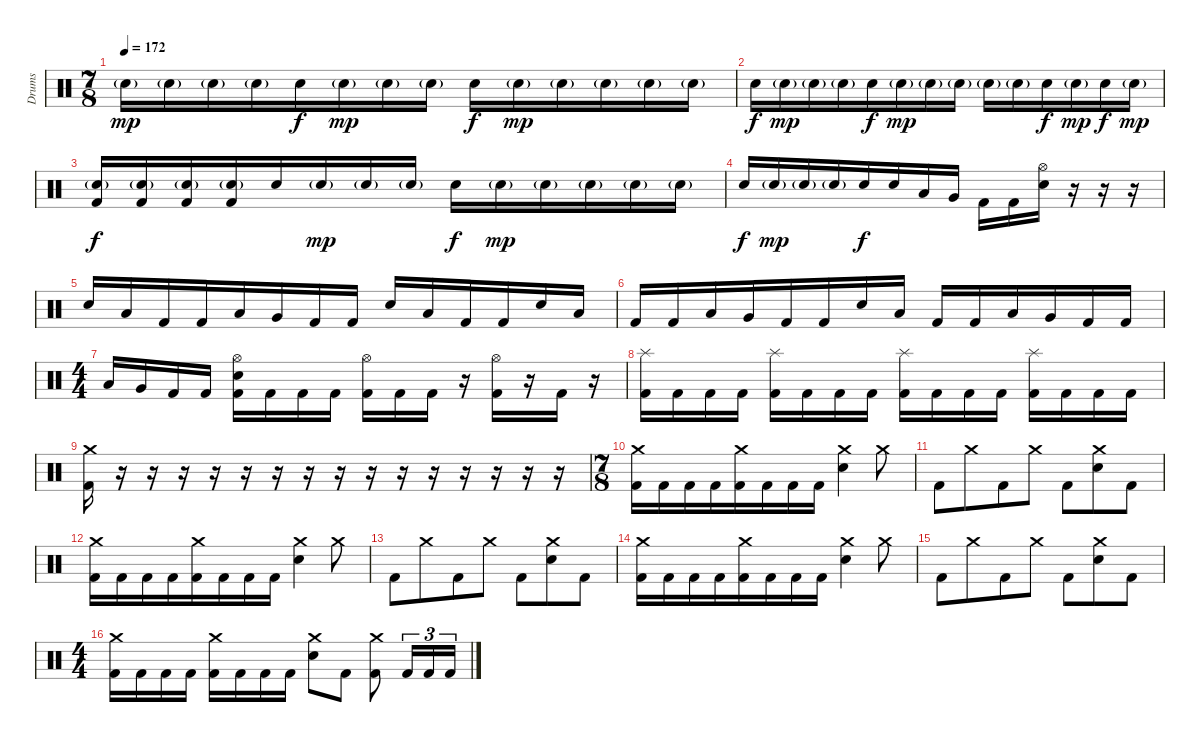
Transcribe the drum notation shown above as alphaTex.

\track ("Drums" "Drums") {instrument percussion}
\staff {score}
\articulation defaults
\ts (7 8)
\tempo 172
\clef neutral
\ks c "Snare (hit) 2"{g}.16{dy mp} "Snare (hit) 2"{g}.16 "Snare (hit) 2"{g}.16 "Snare (hit) 2"{g}.16 "Electric Snare (hit)".16{dy f} "Snare (hit) 2"{g}.16{dy mp} "Snare (hit) 2"{g}.16 "Snare (hit) 2"{g}.16 "Electric Snare (hit)".16{dy f} "Snare (hit) 2"{g}.16{dy mp} "Snare (hit) 2"{g}.16 "Snare (hit) 2"{g}.16 "Snare (hit) 2"{g}.16 "Snare (hit) 2"{g}.16
|
"Electric Snare (hit)".16{dy f} "Snare (hit) 2"{g}.16{dy mp} "Snare (hit) 2"{g}.16 "Snare (hit) 2"{g}.16 "Electric Snare (hit)".16{dy f} "Snare (hit) 2"{g}.16{dy mp} "Snare (hit) 2"{g}.16 "Snare (hit) 2"{g}.16 "Snare (hit) 2"{g}.16 "Snare (hit) 2"{g}.16 "Electric Snare (hit)".16{dy f} "Snare (hit) 2"{g}.16{dy mp} "Electric Snare (hit)".16{dy f} "Snare (hit) 2"{g}.16{dy mp} |
("Snare (hit) 2"{g} "Kick (hit) 2").16{dy f} ("Snare (hit) 2"{g} "Kick (hit) 2").16 ("Snare (hit) 2"{g} "Kick (hit) 2").16 ("Snare (hit) 2"{g} "Kick (hit) 2").16 "Electric Snare (hit)".16 "Snare (hit) 2"{g}.16{dy mp} "Snare (hit) 2"{g}.16 "Snare (hit) 2"{g}.16 "Electric Snare (hit)".16{dy f} "Snare (hit) 2"{g}.16{dy mp} "Snare (hit) 2"{g}.16 "Snare (hit) 2"{g}.16 "Snare (hit) 2"{g}.16 "Snare (hit) 2"{g}.16 |
"Electric Snare (hit)".16{dy f} "Snare (hit) 2"{g}.16{dy mp} "Snare (hit) 2"{g}.16 "Snare (hit) 2"{g}.16 "Electric Snare (hit)".16{dy f} "Electric Snare (hit)".16 "Low Tom (hit)".16 "Very Low Tom (hit)".16 "Kick (hit) 2".16 "Kick (hit) 2".16 ("Hi-Hat (open)" "Electric Snare (hit)").16 r.16 r.16 r.16 |
"Electric Snare (hit)".16 "Low Tom (hit)".16 "Kick (hit) 2".16 "Kick (hit) 2".16 "Low Tom (hit)".16 "Very Low Tom (hit)".16 "Kick (hit) 2".16 "Kick (hit) 2".16 "Electric Snare (hit)".16 "Low Tom (hit)".16 "Kick (hit) 2".16 "Kick (hit) 2".16 "Electric Snare (hit)".16 "Low Tom (hit)".16 |
"Kick (hit) 2".16 "Kick (hit) 2".16 "Low Tom (hit)".16 "Very Low Tom (hit)".16 "Kick (hit) 2".16 "Kick (hit) 2".16 "Electric Snare (hit)".16 "Low Tom (hit)".16 "Kick (hit) 2".16 "Kick (hit) 2".16 "Low Tom (hit)".16 "Very Low Tom (hit)".16 "Kick (hit) 2".16 "Kick (hit) 2".16 |
\ts (4 4)
"Low Tom (hit)".16 "Very Low Tom (hit)".16 "Kick (hit) 2".16 "Kick (hit) 2".16 ("Hi-Hat (open)" "Electric Snare (hit)" "Kick (hit) 2").16 "Kick (hit) 2".16 "Kick (hit) 2".16 "Kick (hit) 2".16 ("Hi-Hat (open)" "Kick (hit) 2").16 "Kick (hit) 2".16 "Kick (hit) 2".16 r.16 ("Hi-Hat (open)" "Kick (hit) 2").16 r.16 "Kick (hit) 2".16 r.16 |
("Splash (hit)" "Kick (hit) 2").16 "Kick (hit) 2".16 "Kick (hit) 2".16 "Kick (hit) 2".16 ("Splash (hit)" "Kick (hit) 2").16 "Kick (hit) 2".16 "Kick (hit) 2".16 "Kick (hit) 2".16 ("Splash (hit)" "Kick (hit) 2").16 "Kick (hit) 2".16 "Kick (hit) 2".16 "Kick (hit) 2".16 ("Splash (hit)" "Kick (hit) 2").16 "Kick (hit) 2".16 "Kick (hit) 2".16 "Kick (hit) 2".16 |
("Crash medium (hit)" "Kick (hit) 2").16 r.16 r.16 r.16 r.16 r.16 r.16 r.16 r.16 r.16 r.16 r.16 r.16 r.16 r.16 r.16 |
\ts (7 8)
("Crash medium (hit)" "Kick (hit) 2").16 "Kick (hit) 2".16 "Kick (hit) 2".16 "Kick (hit) 2".16 ("Crash medium (hit)" "Kick (hit) 2").16 "Kick (hit) 2".16 "Kick (hit) 2".16 "Kick (hit) 2".16 ("Crash medium (hit)" "Electric Snare (hit)").4 "Crash medium (hit)".8 |
"Kick (hit) 2".8 "Crash medium (hit)".8 "Kick (hit) 2".8 "Crash medium (hit)".8 "Kick (hit) 2".8 ("Crash medium (hit)" "Electric Snare (hit)").8 "Kick (hit) 2".8 |
("Crash medium (hit)" "Kick (hit) 2").16 "Kick (hit) 2".16 "Kick (hit) 2".16 "Kick (hit) 2".16 ("Crash medium (hit)" "Kick (hit) 2").16 "Kick (hit) 2".16 "Kick (hit) 2".16 "Kick (hit) 2".16 ("Crash medium (hit)" "Electric Snare (hit)").4 "Crash medium (hit)".8 |
"Kick (hit) 2".8 "Crash medium (hit)".8 "Kick (hit) 2".8 "Crash medium (hit)".8 "Kick (hit) 2".8 ("Crash medium (hit)" "Electric Snare (hit)").8 "Kick (hit) 2".8 |
("Crash medium (hit)" "Kick (hit) 2").16 "Kick (hit) 2".16 "Kick (hit) 2".16 "Kick (hit) 2".16 ("Crash medium (hit)" "Kick (hit) 2").16 "Kick (hit) 2".16 "Kick (hit) 2".16 "Kick (hit) 2".16 ("Crash medium (hit)" "Electric Snare (hit)").4 "Crash medium (hit)".8 |
"Kick (hit) 2".8 "Crash medium (hit)".8 "Kick (hit) 2".8 "Crash medium (hit)".8 "Kick (hit) 2".8 ("Crash medium (hit)" "Electric Snare (hit)").8 "Kick (hit) 2".8 |
\ts (4 4)
("Crash medium (hit)" "Kick (hit) 2").16 "Kick (hit) 2".16 "Kick (hit) 2".16 "Kick (hit) 2".16 ("Crash medium (hit)" "Kick (hit) 2").16 "Kick (hit) 2".16 "Kick (hit) 2".16 "Kick (hit) 2".16 ("Crash medium (hit)" "Electric Snare (hit)").8 "Kick (hit) 2".8 ("Crash medium (hit)" "Kick (hit) 2").8 "Kick (hit) 2".16{tu (3 2)} "Kick (hit) 2".16{tu (3 2)} "Kick (hit) 2".16{tu (3 2)}
